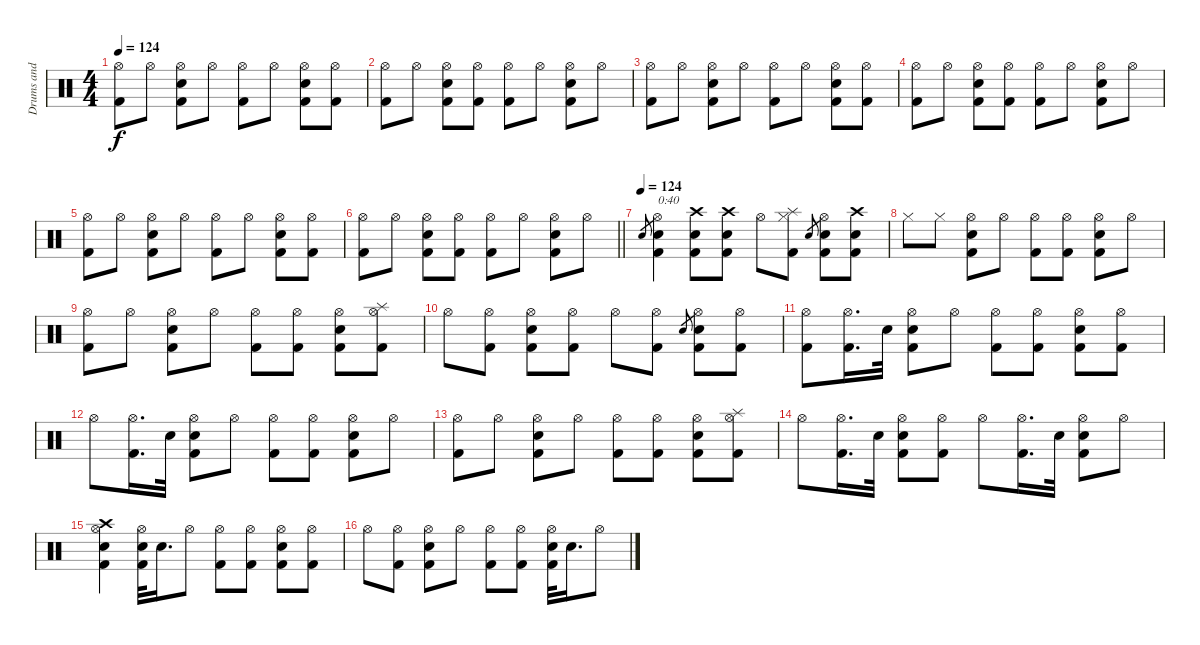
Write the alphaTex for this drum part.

\track ("Drums and Percussie" "Drums and ") {instrument percussion}
\staff {score}
\articulation defaults
\ts (4 4)
\tempo 124
\clef neutral
\ks c
("Hi-Hat (open)" "Kick (hit) 2").8{dy f} "Hi-Hat (open)".8 ("Kick (hit) 2" "Hi-Hat (open)" "Snare (hit) 2").8 "Hi-Hat (open)".8 ("Hi-Hat (open)" "Kick (hit) 2").8 "Hi-Hat (open)".8 ("Kick (hit) 2" "Hi-Hat (open)" "Snare (hit) 2").8 ("Hi-Hat (open)" "Kick (hit) 2").8 |
("Hi-Hat (open)" "Kick (hit) 2").8 "Hi-Hat (open)".8 ("Snare (hit) 2" "Hi-Hat (open)" "Kick (hit) 2").8 ("Kick (hit) 2" "Hi-Hat (open)").8 ("Kick (hit) 2" "Hi-Hat (open)").8 "Hi-Hat (open)".8 ("Hi-Hat (open)" "Snare (hit) 2" "Kick (hit) 2").8 "Hi-Hat (open)".8 |
("Hi-Hat (open)" "Kick (hit) 2").8 "Hi-Hat (open)".8 ("Hi-Hat (open)" "Snare (hit) 2" "Kick (hit) 2").8 "Hi-Hat (open)".8 ("Hi-Hat (open)" "Kick (hit) 2").8 "Hi-Hat (open)".8 ("Kick (hit) 2" "Snare (hit) 2" "Hi-Hat (open)").8 ("Kick (hit) 2" "Hi-Hat (open)").8 |
("Hi-Hat (open)" "Kick (hit) 2").8 "Hi-Hat (open)".8 ("Hi-Hat (open)" "Snare (hit) 2" "Kick (hit) 2").8 ("Hi-Hat (open)" "Kick (hit) 2").8 ("Hi-Hat (open)" "Kick (hit) 2").8 "Hi-Hat (open)".8 ("Hi-Hat (open)" "Snare (hit) 2" "Kick (hit) 2").8 "Hi-Hat (open)".8 |
("Kick (hit) 2" "Hi-Hat (open)").8 "Hi-Hat (open)".8 ("Hi-Hat (open)" "Kick (hit) 2" "Snare (hit) 2").8 "Hi-Hat (open)".8 ("Hi-Hat (open)" "Kick (hit) 2").8 "Hi-Hat (open)".8 ("Snare (hit) 2" "Kick (hit) 2" "Hi-Hat (open)").8 ("Hi-Hat (open)" "Kick (hit) 2").8 |
\barLineRight lightlight
("Kick (hit) 2" "Hi-Hat (open)").8 "Hi-Hat (open)".8 ("Kick (hit) 2" "Snare (hit) 2" "Hi-Hat (open)").8 ("Kick (hit) 2" "Hi-Hat (open)").8 ("Hi-Hat (open)" "Kick (hit) 2").8 "Hi-Hat (open)".8 ("Snare (hit) 2" "Kick (hit) 2" "Hi-Hat (open)").8 "Hi-Hat (open)".8 |
\tempo (124)
"Snare (hit) 2".8{gr} ("Hi-Hat (open)" "Snare (hit) 2" "Kick (hit) 2").4{txt "0:40"} ("Crash high (hit)" "Kick (hit) 2" "Snare (hit) 2").8 ("Crash high (hit)" "Kick (hit) 2" "Snare (hit) 2").8 "Hi-Hat (open)".8 ("Kick (hit) 2" "Hi-Hat (closed)" "Splash (hit)").8 "Snare (hit) 2".8{gr} ("Kick (hit) 2" "Snare (hit) 2" "Hi-Hat (open)").8 ("Snare (hit) 2" "Crash high (hit)" "Kick (hit) 2").8 |
"Hi-Hat (closed)".8 "Hi-Hat (closed)".8 ("Snare (hit) 2" "Kick (hit) 2" "Hi-Hat (open)").8 "Hi-Hat (open)".8 ("Hi-Hat (open)" "Kick (hit) 2").8 ("Kick (hit) 2" "Hi-Hat (open)").8 ("Hi-Hat (open)" "Snare (hit) 2" "Kick (hit) 2").8 "Hi-Hat (open)".8 |
("Hi-Hat (open)" "Kick (hit) 2").8 "Hi-Hat (open)".8 ("Snare (hit) 2" "Kick (hit) 2" "Hi-Hat (open)").8 "Hi-Hat (open)".8 ("Hi-Hat (open)" "Kick (hit) 2").8 ("Hi-Hat (open)" "Kick (hit) 2").8 ("Snare (hit) 2" "Hi-Hat (open)" "Kick (hit) 2").8 ("Hi-Hat (open)" "Splash (hit)" "Kick (hit) 2").8 |
"Hi-Hat (open)".8 ("Kick (hit) 2" "Hi-Hat (open)").8 ("Snare (hit) 2" "Hi-Hat (open)" "Kick (hit) 2").8 ("Kick (hit) 2" "Hi-Hat (open)").8 "Hi-Hat (open)".8 ("Hi-Hat (open)" "Kick (hit) 2").8 "Snare (hit) 2".8{gr} ("Snare (hit) 2" "Hi-Hat (open)" "Kick (hit) 2").8 ("Kick (hit) 2" "Hi-Hat (open)").8 |
("Hi-Hat (open)" "Kick (hit) 2").8 ("Hi-Hat (open)" "Kick (hit) 2").16{d} "Snare (hit) 2".32 ("Snare (hit) 2" "Kick (hit) 2" "Hi-Hat (open)").8 "Hi-Hat (open)".8 ("Hi-Hat (open)" "Kick (hit) 2").8 ("Hi-Hat (open)" "Kick (hit) 2").8 ("Kick (hit) 2" "Hi-Hat (open)" "Snare (hit) 2").8 ("Kick (hit) 2" "Hi-Hat (open)").8 |
"Hi-Hat (open)".8 ("Hi-Hat (open)" "Kick (hit) 2").16{d} "Snare (hit) 2".32 ("Snare (hit) 2" "Hi-Hat (open)" "Kick (hit) 2").8 "Hi-Hat (open)".8 ("Hi-Hat (open)" "Kick (hit) 2").8 ("Kick (hit) 2" "Hi-Hat (open)").8 ("Hi-Hat (open)" "Kick (hit) 2" "Snare (hit) 2").8 "Hi-Hat (open)".8 |
("Kick (hit) 2" "Hi-Hat (open)").8 "Hi-Hat (open)".8 ("Hi-Hat (open)" "Kick (hit) 2" "Snare (hit) 2").8 "Hi-Hat (open)".8 ("Hi-Hat (open)" "Kick (hit) 2").8 ("Hi-Hat (open)" "Kick (hit) 2").8 ("Hi-Hat (open)" "Kick (hit) 2" "Snare (hit) 2").8 ("Kick (hit) 2" "Hi-Hat (open)" "Splash (hit)").8 |
"Hi-Hat (open)".8 ("Kick (hit) 2" "Hi-Hat (open)").16{d} "Snare (hit) 2".32 ("Kick (hit) 2" "Hi-Hat (open)" "Snare (hit) 2").8 ("Hi-Hat (open)" "Kick (hit) 2").8 "Hi-Hat (open)".8 ("Kick (hit) 2" "Hi-Hat (open)").16{d} "Snare (hit) 2".32 ("Snare (hit) 2" "Hi-Hat (open)" "Kick (hit) 2").8 "Hi-Hat (open)".8 |
("Snare (hit) 2" "Hi-Hat (open)" "Crash high (hit)" "Kick (hit) 2").4 ("Snare (hit) 2" "Hi-Hat (open)" "Kick (hit) 2").32 "Snare (hit) 2".16{d} "Hi-Hat (open)".8 ("Kick (hit) 2" "Hi-Hat (open)").8 ("Kick (hit) 2" "Hi-Hat (open)").8 ("Snare (hit) 2" "Hi-Hat (open)" "Kick (hit) 2").8 ("Hi-Hat (open)" "Kick (hit) 2").8 |
"Hi-Hat (open)".8 ("Hi-Hat (open)" "Kick (hit) 2").8 ("Snare (hit) 2" "Kick (hit) 2" "Hi-Hat (open)").8 "Hi-Hat (open)".8 ("Kick (hit) 2" "Hi-Hat (open)").8 ("Hi-Hat (open)" "Kick (hit) 2").8 ("Snare (hit) 2" "Kick (hit) 2" "Hi-Hat (open)").32 "Snare (hit) 2".16{d} "Hi-Hat (open)".8
